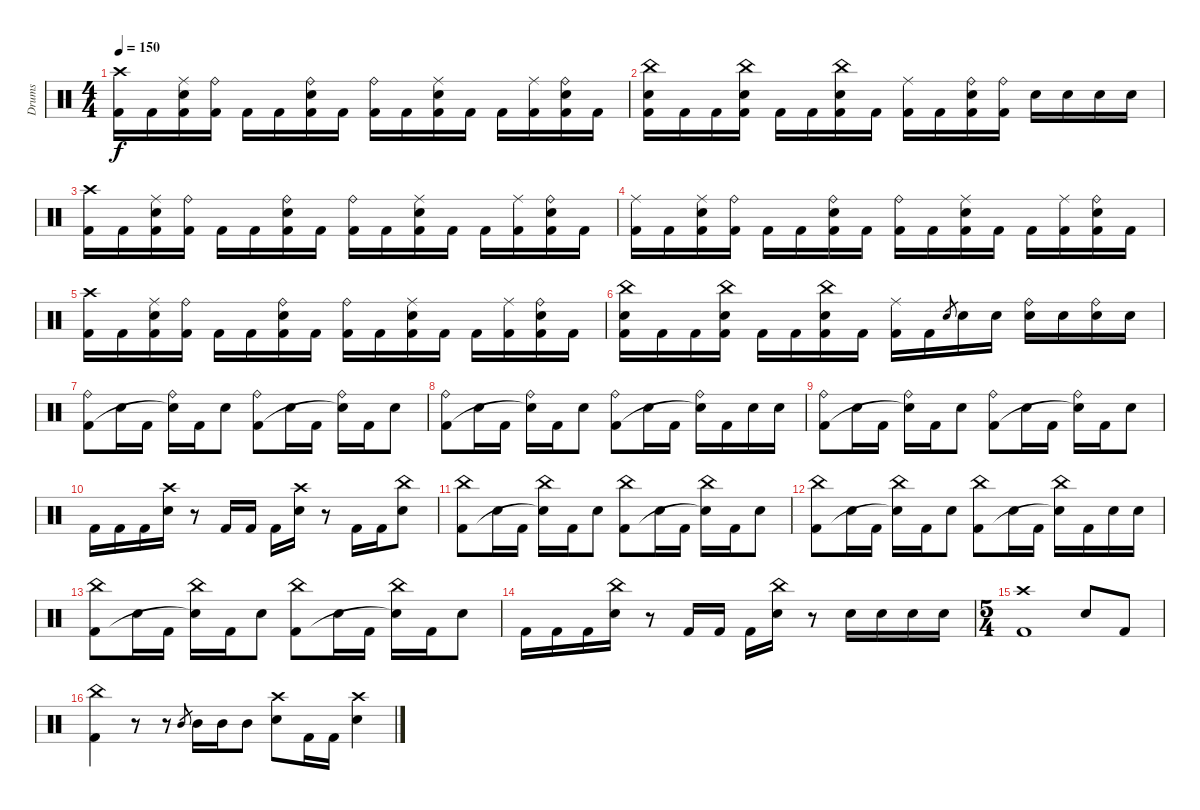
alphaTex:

\track ("Drums" "Drums") {instrument percussion}
\staff {score}
\articulation defaults
\ts (4 4)
\tempo 150
\clef neutral
\ks c
("Crash high (hit)" "Kick (hit) 2").16{dy f} "Kick (hit) 2".16 ("Ride (middle)" "Snare (hit) 2" "Kick (hit) 2").16 ("Ride (bell)" "Kick (hit) 2").16 "Kick (hit) 2".16 "Kick (hit) 2".16 ("Ride (bell)" "Snare (hit) 2" "Kick (hit) 2").16 "Kick (hit) 2".16 ("Ride (bell)" "Kick (hit) 2").16 "Kick (hit) 2".16 ("Ride (middle)" "Snare (hit) 2" "Kick (hit) 2").16 "Kick (hit) 2".16 "Kick (hit) 2".16 ("Ride (middle)" "Kick (hit) 2").16 ("Ride (bell)" "Snare (hit) 2" "Kick (hit) 2").16 "Kick (hit) 2".16 |
("China (hit)" "Snare (hit) 2" "Kick (hit) 2").16 "Kick (hit) 2".16 "Kick (hit) 2".16 ("China (hit)" "Snare (hit) 2" "Kick (hit) 2").16 "Kick (hit) 2".16 "Kick (hit) 2".16 ("China (hit)" "Snare (hit) 2" "Kick (hit) 2").16 "Kick (hit) 2".16 ("Ride (middle)" "Kick (hit) 2").16 "Kick (hit) 2".16 ("Ride (bell)" "Snare (hit) 2" "Kick (hit) 2").16 ("Ride (bell)" "Kick (hit) 2").16 "Snare (hit) 2".16 "Snare (hit) 2".16 "Snare (hit) 2".16 "Snare (hit) 2".16 |
("Crash high (hit)" "Kick (hit) 2").16 "Kick (hit) 2".16 ("Ride (middle)" "Snare (hit) 2" "Kick (hit) 2").16 ("Ride (bell)" "Kick (hit) 2").16 "Kick (hit) 2".16 "Kick (hit) 2".16 ("Ride (bell)" "Snare (hit) 2" "Kick (hit) 2").16 "Kick (hit) 2".16 ("Ride (bell)" "Kick (hit) 2").16 "Kick (hit) 2".16 ("Ride (middle)" "Snare (hit) 2" "Kick (hit) 2").16 "Kick (hit) 2".16 "Kick (hit) 2".16 ("Ride (middle)" "Kick (hit) 2").16 ("Ride (bell)" "Snare (hit) 2" "Kick (hit) 2").16 "Kick (hit) 2".16 |
("Ride (middle)" "Kick (hit) 2").16 "Kick (hit) 2".16 ("Ride (middle)" "Snare (hit) 2" "Kick (hit) 2").16 ("Ride (bell)" "Kick (hit) 2").16 "Kick (hit) 2".16 "Kick (hit) 2".16 ("Ride (bell)" "Snare (hit) 2" "Kick (hit) 2").16 "Kick (hit) 2".16 ("Ride (bell)" "Kick (hit) 2").16 "Kick (hit) 2".16 ("Ride (middle)" "Snare (hit) 2" "Kick (hit) 2").16 "Kick (hit) 2".16 "Kick (hit) 2".16 ("Ride (middle)" "Kick (hit) 2").16 ("Ride (bell)" "Snare (hit) 2" "Kick (hit) 2").16 "Kick (hit) 2".16 |
("Crash high (hit)" "Kick (hit) 2").16 "Kick (hit) 2".16 ("Ride (middle)" "Snare (hit) 2" "Kick (hit) 2").16 ("Ride (bell)" "Kick (hit) 2").16 "Kick (hit) 2".16 "Kick (hit) 2".16 ("Ride (bell)" "Snare (hit) 2" "Kick (hit) 2").16 "Kick (hit) 2".16 ("Ride (bell)" "Kick (hit) 2").16 "Kick (hit) 2".16 ("Ride (middle)" "Snare (hit) 2" "Kick (hit) 2").16 "Kick (hit) 2".16 "Kick (hit) 2".16 ("Ride (middle)" "Kick (hit) 2").16 ("Ride (bell)" "Snare (hit) 2" "Kick (hit) 2").16 "Kick (hit) 2".16 |
("China (hit)" "Snare (hit) 2" "Kick (hit) 2").16 "Kick (hit) 2".16 "Kick (hit) 2".16 ("China (hit)" "Snare (hit) 2" "Kick (hit) 2").16 "Kick (hit) 2".16 "Kick (hit) 2".16 ("China (hit)" "Snare (hit) 2" "Kick (hit) 2").16 "Kick (hit) 2".16 ("Ride (middle)" "Kick (hit) 2").16 "Kick (hit) 2".16 "Snare (hit) 2".8{gr} "Snare (hit) 2".16 "Snare (hit) 2".16 ("Ride (bell)" "Snare (hit) 2").16 "Snare (hit) 2".16 ("Ride (bell)" "Snare (hit) 2").16 "Snare (hit) 2".16 |
("Ride (bell)" "Kick (hit) 2").8 "Snare (hit) 2".16 "Kick (hit) 2".16 ("Ride (bell)" "Snare (hit)"{t}).16 "Kick (hit) 2".16 "Snare (hit) 2".8 ("Ride (bell)" "Kick (hit) 2").8 "Snare (hit) 2".16 "Kick (hit) 2".16 ("Ride (bell)" "Snare (hit)"{t}).16 "Kick (hit) 2".16 "Snare (hit) 2".8 |
("Ride (bell)" "Kick (hit) 2").8 "Snare (hit) 2".16 "Kick (hit) 2".16 ("Ride (bell)" "Snare (hit)"{t}).16 "Kick (hit) 2".16 "Snare (hit) 2".8 ("Ride (bell)" "Kick (hit) 2").8 "Snare (hit) 2".16 "Kick (hit) 2".16 ("Ride (bell)" "Snare (hit)"{t}).16 "Kick (hit) 2".16 "Snare (hit) 2".16 "Snare (hit) 2".16 |
("Ride (bell)" "Kick (hit) 2").8 "Snare (hit) 2".16 "Kick (hit) 2".16 ("Ride (bell)" "Snare (hit)"{t}).16 "Kick (hit) 2".16 "Snare (hit) 2".8 ("Ride (bell)" "Kick (hit) 2").8 "Snare (hit) 2".16 "Kick (hit) 2".16 ("Ride (bell)" "Snare (hit)"{t}).16 "Kick (hit) 2".16 "Snare (hit) 2".8 |
"Kick (hit) 2".16 "Kick (hit) 2".16 "Kick (hit) 2".16 ("Crash high (hit)" "Snare (hit) 2").16 r.8 "Kick (hit) 2".16 "Kick (hit) 2".16 "Kick (hit) 2".16 ("Crash high (hit)" "Snare (hit) 2").16 r.8 "Kick (hit) 2".16 "Kick (hit) 2".16 ("China (hit)" "Snare (hit) 2").8 |
("China (hit)" "Kick (hit) 2").8 "Snare (hit) 2".16 "Kick (hit) 2".16 ("China (hit)" "Snare (hit)"{t}).16 "Kick (hit) 2".16 "Snare (hit) 2".8 ("China (hit)" "Kick (hit) 2").8 "Snare (hit) 2".16 "Kick (hit) 2".16 ("China (hit)" "Snare (hit)"{t}).16 "Kick (hit) 2".16 "Snare (hit) 2".8 |
("China (hit)" "Kick (hit) 2").8 "Snare (hit) 2".16 "Kick (hit) 2".16 ("China (hit)" "Snare (hit)"{t}).16 "Kick (hit) 2".16 "Snare (hit) 2".8 ("China (hit)" "Kick (hit) 2").8 "Snare (hit) 2".16 "Kick (hit) 2".16 ("China (hit)" "Snare (hit)"{t}).16 "Kick (hit) 2".16 "Snare (hit) 2".16 "Snare (hit) 2".16 |
("China (hit)" "Kick (hit) 2").8 "Snare (hit) 2".16 "Kick (hit) 2".16 ("China (hit)" "Snare (hit)"{t}).16 "Kick (hit) 2".16 "Snare (hit) 2".8 ("China (hit)" "Kick (hit) 2").8 "Snare (hit) 2".16 "Kick (hit) 2".16 ("China (hit)" "Snare (hit)"{t}).16 "Kick (hit) 2".16 "Snare (hit) 2".8 |
"Kick (hit) 2".16 "Kick (hit) 2".16 "Kick (hit) 2".16 ("China (hit)" "Snare (hit) 2").16 r.8 "Kick (hit) 2".16 "Kick (hit) 2".16 "Kick (hit) 2".16 ("China (hit)" "Snare (hit) 2").16 r.8 "Snare (hit) 2".16 "Snare (hit) 2".16 "Snare (hit) 2".16 "Snare (hit) 2".16 |
\ts (5 4)
("Crash high (hit)" "Kick (hit) 2").1 "Snare (hit) 2".8 "Kick (hit) 2".8 |
("China (hit)" "Kick (hit) 2").4 r.8 r.8 "Mid Tom (hit)".8{gr} "Mid Tom (hit)".16 "Mid Tom (hit)".16 "Mid Tom (hit)".8 ("Crash high (hit)" "Snare (hit) 2").8 "Kick (hit) 2".16 "Kick (hit) 2".16 ("Crash high (hit)" "Snare (hit) 2").4
